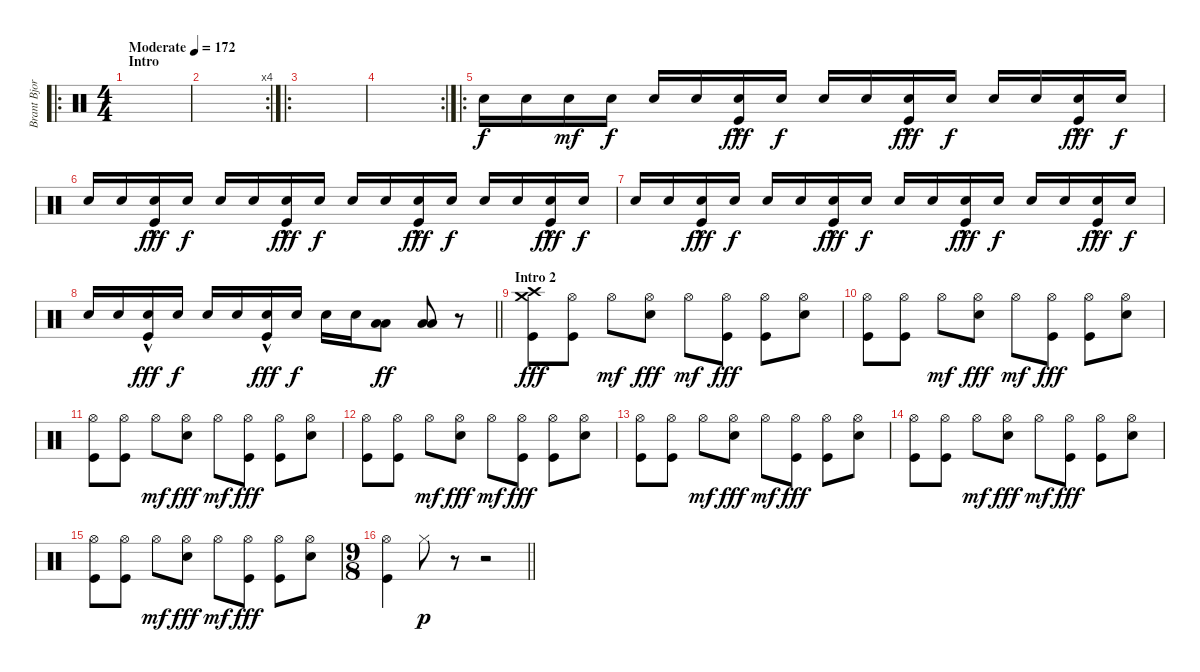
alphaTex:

\track ("Brant Bjork" "Brant Bjor") {instrument percussion}
\staff {score}
\articulation defaults
\ro
\ts (4 4)
\section ("" "Intro")
\tempo (172 "Moderate")
\clef neutral
\ks c
|
\rc 4
|
\ro
|
\rc 2
|
\ro "Snare (hit) 2".16 "Snare (hit) 2".16 "Snare (hit) 2".16{dy mf} "Snare (hit) 2".16{dy f} "Snare (hit) 2".16 "Snare (hit) 2".16
("Snare (hit) 2" "Kick (hit)"{hac}).16{dy fff} "Snare (hit) 2".16{dy f} "Snare (hit) 2".16 "Snare (hit) 2".16 ("Snare (hit) 2" "Kick (hit)"{hac}).16{dy fff} "Snare (hit) 2".16{dy f} "Snare (hit) 2".16 "Snare (hit) 2".16 ("Snare (hit) 2" "Kick (hit)"{hac}).16{dy fff} "Snare (hit) 2".16{dy f} |
"Snare (hit) 2".16 "Snare (hit) 2".16 ("Snare (hit) 2" "Kick (hit)"{hac}).16{dy fff} "Snare (hit) 2".16{dy f} "Snare (hit) 2".16 "Snare (hit) 2".16 ("Snare (hit) 2" "Kick (hit)"{hac}).16{dy fff} "Snare (hit) 2".16{dy f} "Snare (hit) 2".16 "Snare (hit) 2".16 ("Snare (hit) 2" "Kick (hit)"{hac}).16{dy fff} "Snare (hit) 2".16{dy f} "Snare (hit) 2".16 "Snare (hit) 2".16 ("Snare (hit) 2" "Kick (hit)"{hac}).16{dy fff} "Snare (hit) 2".16{dy f} |
"Snare (hit) 2".16 "Snare (hit) 2".16 ("Snare (hit) 2" "Kick (hit)"{hac}).16{dy fff} "Snare (hit) 2".16{dy f} "Snare (hit) 2".16 "Snare (hit) 2".16 ("Snare (hit) 2" "Kick (hit)"{hac}).16{dy fff} "Snare (hit) 2".16{dy f} "Snare (hit) 2".16 "Snare (hit) 2".16 ("Snare (hit) 2" "Kick (hit)"{hac}).16{dy fff} "Snare (hit) 2".16{dy f} "Snare (hit) 2".16 "Snare (hit) 2".16 ("Snare (hit) 2" "Kick (hit)"{hac}).16{dy fff} "Snare (hit) 2".16{dy f} |
\barLineRight lightlight "Snare (hit) 2".16 "Snare (hit) 2".16
("Snare (hit) 2" "Kick (hit)"{hac}).16{dy fff} "Snare (hit) 2".16{dy f} "Snare (hit) 2".16 "Snare (hit) 2".16 ("Snare (hit) 2" "Kick (hit)"{hac}).16{dy fff} "Snare (hit) 2".16{dy f} "Snare (hit) 2".16 "Snare (hit) 2".16 ("Low Tom (hit)" "Low Tom (hit)").8{bd 120 dy ff} ("Low Tom (hit)" "Low Tom (hit)").8{bd 120} r.8 |
\section ("" "Intro 2")
("Crash high (hit)" "Crash medium (hit)" "Kick (hit)").8{dy fff} ("Hi-Hat (open)" "Kick (hit)").8 "Hi-Hat (open)".8{dy mf} ("Hi-Hat (open)" "Snare (hit) 2").8{dy fff} "Hi-Hat (open)".8{dy mf} ("Hi-Hat (open)" "Kick (hit)").8{dy fff} ("Hi-Hat (open)" "Kick (hit)").8 ("Hi-Hat (open)" "Snare (hit) 2").8 |
("Hi-Hat (open)" "Kick (hit)").8 ("Hi-Hat (open)" "Kick (hit)").8 "Hi-Hat (open)".8{dy mf} ("Hi-Hat (open)" "Snare (hit) 2").8{dy fff} "Hi-Hat (open)".8{dy mf} ("Hi-Hat (open)" "Kick (hit)").8{dy fff} ("Hi-Hat (open)" "Kick (hit)").8 ("Hi-Hat (open)" "Snare (hit) 2").8 |
("Hi-Hat (open)" "Kick (hit)").8 ("Hi-Hat (open)" "Kick (hit)").8 "Hi-Hat (open)".8{dy mf} ("Hi-Hat (open)" "Snare (hit) 2").8{dy fff} "Hi-Hat (open)".8{dy mf} ("Hi-Hat (open)" "Kick (hit)").8{dy fff} ("Hi-Hat (open)" "Kick (hit)").8 ("Hi-Hat (open)" "Snare (hit) 2").8 |
("Hi-Hat (open)" "Kick (hit)").8 ("Hi-Hat (open)" "Kick (hit)").8 "Hi-Hat (open)".8{dy mf} ("Hi-Hat (open)" "Snare (hit) 2").8{dy fff} "Hi-Hat (open)".8{dy mf} ("Hi-Hat (open)" "Kick (hit)").8{dy fff} ("Hi-Hat (open)" "Kick (hit)").8 ("Hi-Hat (open)" "Snare (hit) 2").8 |
("Hi-Hat (open)" "Kick (hit)").8 ("Hi-Hat (open)" "Kick (hit)").8 "Hi-Hat (open)".8{dy mf} ("Hi-Hat (open)" "Snare (hit) 2").8{dy fff} "Hi-Hat (open)".8{dy mf} ("Hi-Hat (open)" "Kick (hit)").8{dy fff} ("Hi-Hat (open)" "Kick (hit)").8 ("Hi-Hat (open)" "Snare (hit) 2").8 |
("Hi-Hat (open)" "Kick (hit)").8 ("Hi-Hat (open)" "Kick (hit)").8 "Hi-Hat (open)".8{dy mf} ("Hi-Hat (open)" "Snare (hit) 2").8{dy fff} "Hi-Hat (open)".8{dy mf} ("Hi-Hat (open)" "Kick (hit)").8{dy fff} ("Hi-Hat (open)" "Kick (hit)").8 ("Hi-Hat (open)" "Snare (hit) 2").8 |
("Hi-Hat (open)" "Kick (hit)").8 ("Hi-Hat (open)" "Kick (hit)").8 "Hi-Hat (open)".8{dy mf} ("Hi-Hat (open)" "Snare (hit) 2").8{dy fff} "Hi-Hat (open)".8{dy mf} ("Hi-Hat (open)" "Kick (hit)").8{dy fff} ("Hi-Hat (open)" "Kick (hit)").8 ("Hi-Hat (open)" "Snare (hit) 2").8 |
\ts (9 8)
\barLineRight lightlight
("Hi-Hat (open)" "Kick (hit)").4 "Hi-Hat (closed)".8{dy p} r.8 r.2
